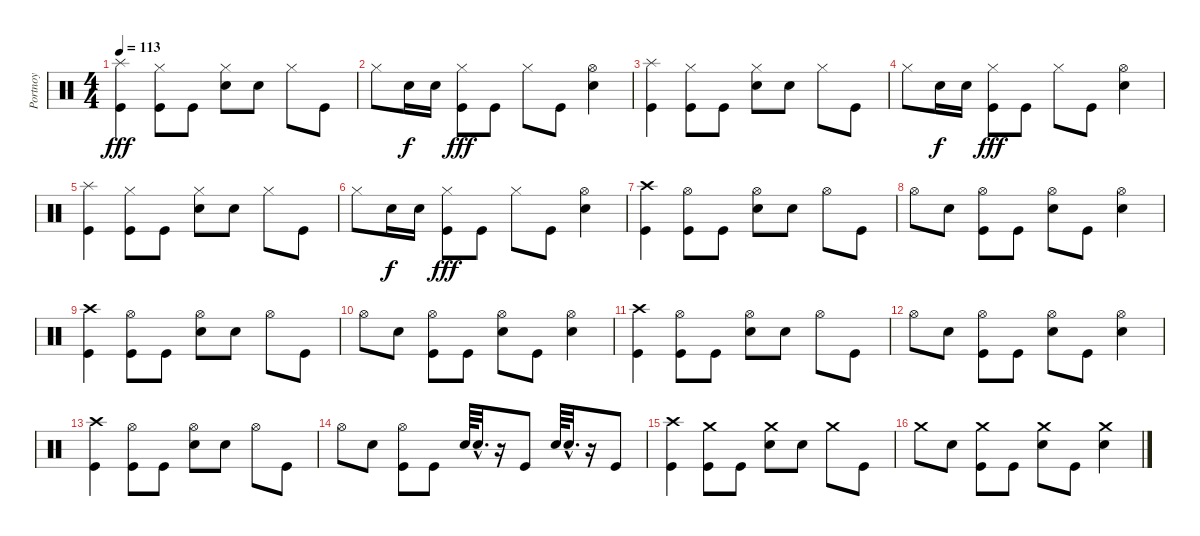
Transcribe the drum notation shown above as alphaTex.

\track ("Portnoy" "Portnoy") {instrument percussion}
\staff {score}
\articulation defaults
\ts (4 4)
\tempo 113
\clef neutral
\ks c
("Splash (hit)" "Kick (hit)").4{dy fff} ("Hi-Hat (closed)" "Kick (hit)").8 "Kick (hit)".8 ("Hi-Hat (closed)" "Snare (hit) 2").8 "Snare (hit) 2".8 "Hi-Hat (closed)".8 "Kick (hit)".8 |
"Hi-Hat (closed)".8 "Snare (hit) 2".16{dy f} "Snare (hit) 2".16 ("Hi-Hat (closed)" "Kick (hit)").8{dy fff} "Kick (hit)".8 "Hi-Hat (closed)".8 "Kick (hit)".8 ("Hi-Hat (open)" "Snare (hit) 2").4 |
("Splash (hit)" "Kick (hit)").4 ("Hi-Hat (closed)" "Kick (hit)").8 "Kick (hit)".8 ("Hi-Hat (closed)" "Snare (hit) 2").8 "Snare (hit) 2".8 "Hi-Hat (closed)".8 "Kick (hit)".8 |
"Hi-Hat (closed)".8 "Snare (hit) 2".16{dy f} "Snare (hit) 2".16 ("Hi-Hat (closed)" "Kick (hit)").8{dy fff} "Kick (hit)".8 "Hi-Hat (closed)".8 "Kick (hit)".8 ("Hi-Hat (open)" "Snare (hit) 2").4 |
("Splash (hit)" "Kick (hit)").4 ("Hi-Hat (closed)" "Kick (hit)").8 "Kick (hit)".8 ("Hi-Hat (closed)" "Snare (hit) 2").8 "Snare (hit) 2".8 "Hi-Hat (closed)".8 "Kick (hit)".8 |
"Hi-Hat (closed)".8 "Snare (hit) 2".16{dy f} "Snare (hit) 2".16 ("Hi-Hat (closed)" "Kick (hit)").8{dy fff} "Kick (hit)".8 "Hi-Hat (closed)".8 "Kick (hit)".8 ("Hi-Hat (open)" "Snare (hit) 2").4 |
("Crash high (hit)" "Kick (hit)").4 ("Hi-Hat (open)" "Kick (hit)").8 "Kick (hit)".8 ("Hi-Hat (open)" "Snare (hit) 2").8 "Snare (hit) 2".8 "Hi-Hat (open)".8 "Kick (hit)".8 |
"Hi-Hat (open)".8 "Snare (hit) 2".8 ("Hi-Hat (open)" "Kick (hit)").8 "Kick (hit)".8 ("Hi-Hat (open)" "Snare (hit) 2").8 "Kick (hit)".8 ("Hi-Hat (open)" "Snare (hit) 2").4 |
("Crash high (hit)" "Kick (hit)").4 ("Hi-Hat (open)" "Kick (hit)").8 "Kick (hit)".8 ("Hi-Hat (open)" "Snare (hit) 2").8 "Snare (hit) 2".8 "Hi-Hat (open)".8 "Kick (hit)".8 |
"Hi-Hat (open)".8 "Snare (hit) 2".8 ("Hi-Hat (open)" "Kick (hit)").8 "Kick (hit)".8 ("Hi-Hat (open)" "Snare (hit) 2").8 "Kick (hit)".8 ("Hi-Hat (open)" "Snare (hit) 2").4 |
("Crash high (hit)" "Kick (hit)").4 ("Hi-Hat (open)" "Kick (hit)").8 "Kick (hit)".8 ("Hi-Hat (open)" "Snare (hit) 2").8 "Snare (hit) 2".8 "Hi-Hat (open)".8 "Kick (hit)".8 |
"Hi-Hat (open)".8 "Snare (hit) 2".8 ("Hi-Hat (open)" "Kick (hit)").8 "Kick (hit)".8 ("Hi-Hat (open)" "Snare (hit) 2").8 "Kick (hit)".8 ("Hi-Hat (open)" "Snare (hit) 2").4 |
("Crash high (hit)" "Kick (hit)").4 ("Hi-Hat (open)" "Kick (hit)").8 "Kick (hit)".8 ("Hi-Hat (open)" "Snare (hit) 2").8 "Snare (hit) 2".8 "Hi-Hat (open)".8 "Kick (hit)".8 |
"Hi-Hat (open)".8 "Snare (hit) 2".8 ("Hi-Hat (open)" "Kick (hit)").8 "Kick (hit)".8 "Snare (hit) 2".64 "Snare (hit) 2"{hac}.32{d} r.16 "Kick (hit)".8 "Snare (hit) 2".64 "Snare (hit) 2"{hac}.32{d} r.16 "Kick (hit)".8 |
("Crash high (hit)" "Kick (hit)").4 ("Crash medium (hit)" "Kick (hit)").8 "Kick (hit)".8 ("Crash medium (hit)" "Snare (hit) 2").8 "Snare (hit) 2".8 "Crash medium (hit)".8 "Kick (hit)".8 |
"Crash medium (hit)".8 "Snare (hit) 2".8 ("Crash medium (hit)" "Kick (hit)").8 "Kick (hit)".8 ("Crash medium (hit)" "Snare (hit) 2").8 "Kick (hit)".8 ("Crash medium (hit)" "Snare (hit) 2").4
